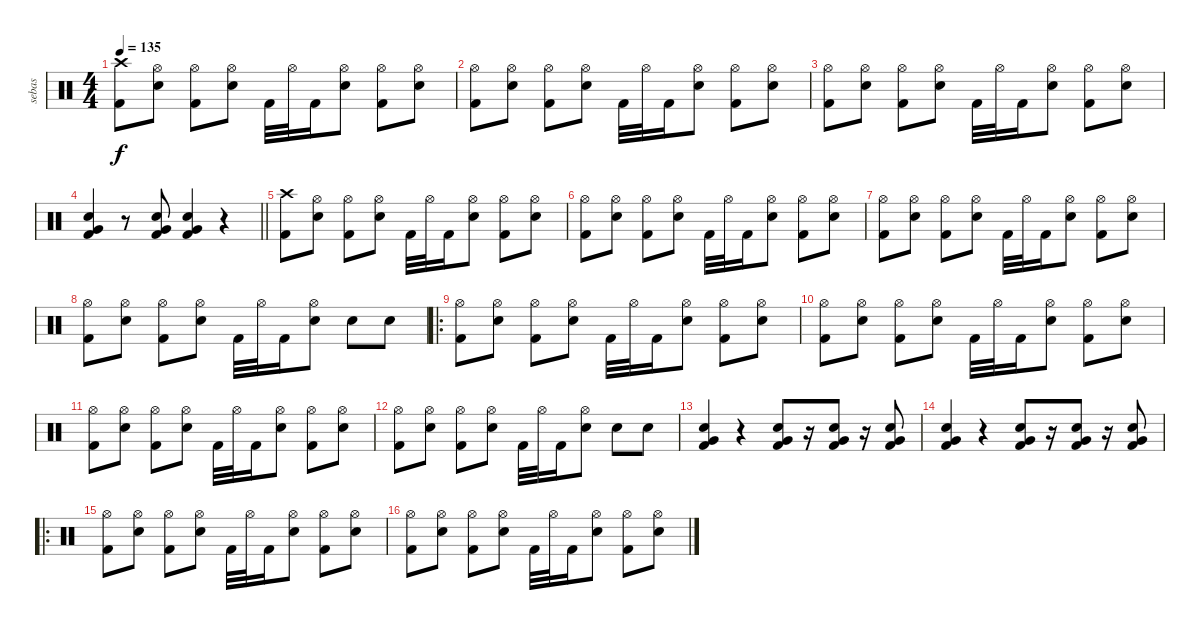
\track ("sebas" "sebas") {instrument percussion}
\staff {score}
\articulation defaults
\ts (4 4)
\tempo 135
\clef neutral
\ks c
("Crash high (hit)" "Kick (hit) 2").8{dy f} ("Hi-Hat (open)" "Snare (hit) 2").8 ("Hi-Hat (open)" "Kick (hit) 2").8 ("Hi-Hat (open)" "Snare (hit) 2").8 "Kick (hit) 2".32 "Hi-Hat (open)".32 "Kick (hit) 2".16 ("Hi-Hat (open)" "Snare (hit) 2").8 ("Hi-Hat (open)" "Kick (hit) 2").8 ("Hi-Hat (open)" "Snare (hit) 2").8 |
("Hi-Hat (open)" "Kick (hit) 2").8 ("Hi-Hat (open)" "Snare (hit) 2").8 ("Hi-Hat (open)" "Kick (hit) 2").8 ("Hi-Hat (open)" "Snare (hit) 2").8 "Kick (hit) 2".32 "Hi-Hat (open)".32 "Kick (hit) 2".16 ("Hi-Hat (open)" "Snare (hit) 2").8 ("Hi-Hat (open)" "Kick (hit) 2").8 ("Hi-Hat (open)" "Snare (hit) 2").8 |
("Hi-Hat (open)" "Kick (hit) 2").8 ("Hi-Hat (open)" "Snare (hit) 2").8 ("Hi-Hat (open)" "Kick (hit) 2").8 ("Hi-Hat (open)" "Snare (hit) 2").8 "Kick (hit) 2".32 "Hi-Hat (open)".32 "Kick (hit) 2".16 ("Hi-Hat (open)" "Snare (hit) 2").8 ("Hi-Hat (open)" "Kick (hit) 2").8 ("Hi-Hat (open)" "Snare (hit) 2").8 |
\barLineRight lightlight
("Snare (hit) 2" "Kick (hit) 2" "Very Low Tom (hit)").4 r.8 ("Snare (hit) 2" "Kick (hit) 2" "Very Low Tom (hit)").8 ("Snare (hit) 2" "Kick (hit) 2" "Very Low Tom (hit)").4 r.4 |
("Crash high (hit)" "Kick (hit) 2").8 ("Hi-Hat (open)" "Snare (hit) 2").8 ("Hi-Hat (open)" "Kick (hit) 2").8 ("Hi-Hat (open)" "Snare (hit) 2").8 "Kick (hit) 2".32 "Hi-Hat (open)".32 "Kick (hit) 2".16 ("Hi-Hat (open)" "Snare (hit) 2").8 ("Hi-Hat (open)" "Kick (hit) 2").8 ("Hi-Hat (open)" "Snare (hit) 2").8 |
("Hi-Hat (open)" "Kick (hit) 2").8 ("Hi-Hat (open)" "Snare (hit) 2").8 ("Hi-Hat (open)" "Kick (hit) 2").8 ("Hi-Hat (open)" "Snare (hit) 2").8 "Kick (hit) 2".32 "Hi-Hat (open)".32 "Kick (hit) 2".16 ("Hi-Hat (open)" "Snare (hit) 2").8 ("Hi-Hat (open)" "Kick (hit) 2").8 ("Hi-Hat (open)" "Snare (hit) 2").8 |
("Hi-Hat (open)" "Kick (hit) 2").8 ("Hi-Hat (open)" "Snare (hit) 2").8 ("Hi-Hat (open)" "Kick (hit) 2").8 ("Hi-Hat (open)" "Snare (hit) 2").8 "Kick (hit) 2".32 "Hi-Hat (open)".32 "Kick (hit) 2".16 ("Hi-Hat (open)" "Snare (hit) 2").8 ("Hi-Hat (open)" "Kick (hit) 2").8 ("Hi-Hat (open)" "Snare (hit) 2").8 |
("Hi-Hat (open)" "Kick (hit) 2").8 ("Hi-Hat (open)" "Snare (hit) 2").8 ("Hi-Hat (open)" "Kick (hit) 2").8 ("Hi-Hat (open)" "Snare (hit) 2").8 "Kick (hit) 2".32 "Hi-Hat (open)".32 "Kick (hit) 2".16 ("Hi-Hat (open)" "Snare (hit) 2").8 "Snare (hit) 2".8 "Snare (hit) 2".8 |
\ro
("Hi-Hat (open)" "Kick (hit) 2").8 ("Hi-Hat (open)" "Snare (hit) 2").8 ("Hi-Hat (open)" "Kick (hit) 2").8 ("Hi-Hat (open)" "Snare (hit) 2").8 "Kick (hit) 2".32 "Hi-Hat (open)".32 "Kick (hit) 2".16 ("Hi-Hat (open)" "Snare (hit) 2").8 ("Hi-Hat (open)" "Kick (hit) 2").8 ("Hi-Hat (open)" "Snare (hit) 2").8 |
("Hi-Hat (open)" "Kick (hit) 2").8 ("Hi-Hat (open)" "Snare (hit) 2").8 ("Hi-Hat (open)" "Kick (hit) 2").8 ("Hi-Hat (open)" "Snare (hit) 2").8 "Kick (hit) 2".32 "Hi-Hat (open)".32 "Kick (hit) 2".16 ("Hi-Hat (open)" "Snare (hit) 2").8 ("Hi-Hat (open)" "Kick (hit) 2").8 ("Hi-Hat (open)" "Snare (hit) 2").8 |
("Hi-Hat (open)" "Kick (hit) 2").8 ("Hi-Hat (open)" "Snare (hit) 2").8 ("Hi-Hat (open)" "Kick (hit) 2").8 ("Hi-Hat (open)" "Snare (hit) 2").8 "Kick (hit) 2".32 "Hi-Hat (open)".32 "Kick (hit) 2".16 ("Hi-Hat (open)" "Snare (hit) 2").8 ("Hi-Hat (open)" "Kick (hit) 2").8 ("Hi-Hat (open)" "Snare (hit) 2").8 |
("Hi-Hat (open)" "Kick (hit) 2").8 ("Hi-Hat (open)" "Snare (hit) 2").8 ("Hi-Hat (open)" "Kick (hit) 2").8 ("Hi-Hat (open)" "Snare (hit) 2").8 "Kick (hit) 2".32 "Hi-Hat (open)".32 "Kick (hit) 2".16 ("Hi-Hat (open)" "Snare (hit) 2").8 "Snare (hit) 2".8 "Snare (hit) 2".8 |
("Snare (hit) 2" "Kick (hit) 2" "Very Low Tom (hit)").4 r.4 ("Snare (hit) 2" "Kick (hit) 2" "Very Low Tom (hit)").8 r.16 ("Snare (hit) 2" "Kick (hit) 2" "Very Low Tom (hit)").8 r.16 ("Snare (hit) 2" "Kick (hit) 2" "Very Low Tom (hit)").8 |
("Snare (hit) 2" "Kick (hit) 2" "Very Low Tom (hit)").4 r.4 ("Snare (hit) 2" "Kick (hit) 2" "Very Low Tom (hit)").8 r.16 ("Snare (hit) 2" "Kick (hit) 2" "Very Low Tom (hit)").8 r.16 ("Snare (hit) 2" "Kick (hit) 2" "Very Low Tom (hit)").8 |
\ro
("Hi-Hat (open)" "Kick (hit) 2").8 ("Hi-Hat (open)" "Snare (hit) 2").8 ("Hi-Hat (open)" "Kick (hit) 2").8 ("Hi-Hat (open)" "Snare (hit) 2").8 "Kick (hit) 2".32 "Hi-Hat (open)".32 "Kick (hit) 2".16 ("Hi-Hat (open)" "Snare (hit) 2").8 ("Hi-Hat (open)" "Kick (hit) 2").8 ("Hi-Hat (open)" "Snare (hit) 2").8 |
("Hi-Hat (open)" "Kick (hit) 2").8 ("Hi-Hat (open)" "Snare (hit) 2").8 ("Hi-Hat (open)" "Kick (hit) 2").8 ("Hi-Hat (open)" "Snare (hit) 2").8 "Kick (hit) 2".32 "Hi-Hat (open)".32 "Kick (hit) 2".16 ("Hi-Hat (open)" "Snare (hit) 2").8 ("Hi-Hat (open)" "Kick (hit) 2").8 ("Hi-Hat (open)" "Snare (hit) 2").8
